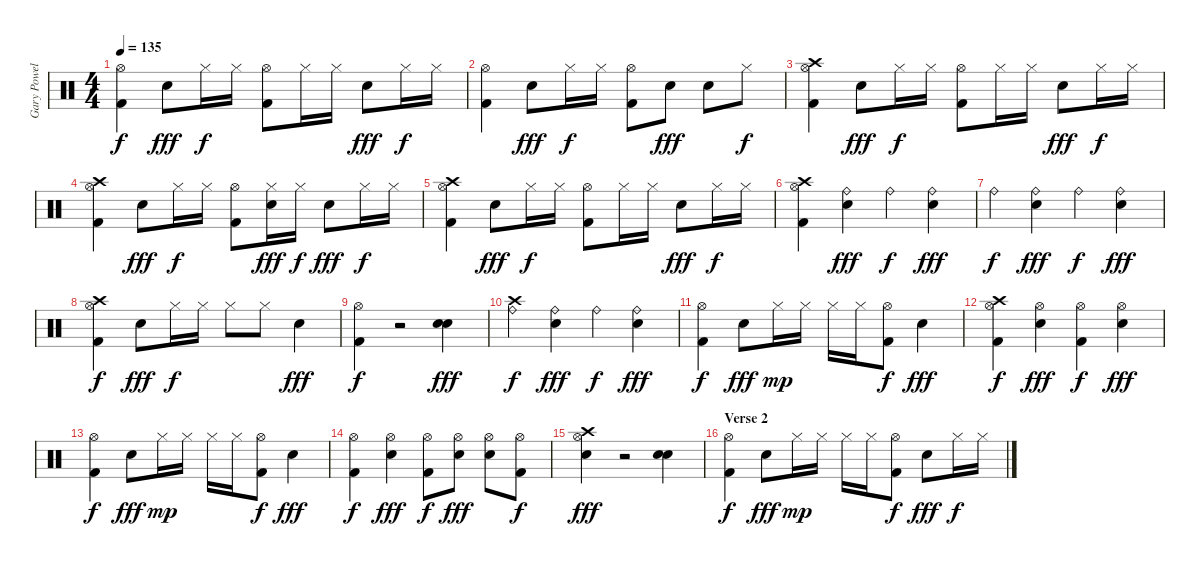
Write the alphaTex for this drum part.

\track ("Gary Powell" "Gary Powel") {instrument percussion}
\staff {score}
\articulation defaults
\ts (4 4)
\tempo 135
\clef neutral
\ks c
("Hi-Hat (open)" "Kick (hit) 2").4{dy f} "Electric Snare (hit)".8{dy fff} "Hi-Hat (closed)".16{dy f} "Hi-Hat (closed)".16 ("Hi-Hat (open)" "Kick (hit) 2").8 "Hi-Hat (closed)".16 "Hi-Hat (closed)".16 "Electric Snare (hit)".8{dy fff} "Hi-Hat (closed)".16{dy f} "Hi-Hat (closed)".16 |
("Hi-Hat (open)" "Kick (hit) 2").4 "Electric Snare (hit)".8{dy fff} "Hi-Hat (closed)".16{dy f} "Hi-Hat (closed)".16 ("Hi-Hat (open)" "Kick (hit) 2").8 "Electric Snare (hit)".8{dy fff} "Electric Snare (hit)".8 "Hi-Hat (closed)".8{dy f} |
("Hi-Hat (open)" "Kick (hit) 2" "Crash high (hit)").4 "Electric Snare (hit)".8{dy fff} "Hi-Hat (closed)".16{dy f} "Hi-Hat (closed)".16 ("Hi-Hat (open)" "Kick (hit) 2").8 "Hi-Hat (closed)".16 "Hi-Hat (closed)".16 "Electric Snare (hit)".8{dy fff} "Hi-Hat (closed)".16{dy f} "Hi-Hat (closed)".16 |
("Hi-Hat (open)" "Kick (hit) 2" "Crash high (hit)").4 "Electric Snare (hit)".8{dy fff} "Hi-Hat (closed)".16{dy f} "Hi-Hat (closed)".16 ("Hi-Hat (open)" "Kick (hit) 2").8 ("Hi-Hat (closed)" "Electric Snare (hit)").16{dy fff} "Hi-Hat (closed)".16{dy f} "Electric Snare (hit)".8{dy fff} "Hi-Hat (closed)".16{dy f} "Hi-Hat (closed)".16 |
("Hi-Hat (open)" "Kick (hit) 2" "Crash high (hit)").4 "Electric Snare (hit)".8{dy fff} "Hi-Hat (closed)".16{dy f} "Hi-Hat (closed)".16 ("Hi-Hat (open)" "Kick (hit) 2").8 "Hi-Hat (closed)".16 "Hi-Hat (closed)".16 "Electric Snare (hit)".8{dy fff} "Hi-Hat (closed)".16{dy f} "Hi-Hat (closed)".16 |
("Hi-Hat (open)" "Kick (hit) 2" "Crash high (hit)").4 ("Ride (bell)" "Electric Snare (hit)").4{dy fff} "Ride (bell)".4{dy f} ("Ride (bell)" "Electric Snare (hit)").4{dy fff} |
"Ride (bell)".4{dy f} ("Ride (bell)" "Electric Snare (hit)").4{dy fff} "Ride (bell)".4{dy f} ("Ride (bell)" "Electric Snare (hit)").4{dy fff} |
("Hi-Hat (open)" "Kick (hit) 2" "Crash high (hit)").4{dy f} "Electric Snare (hit)".8{dy fff} "Hi-Hat (closed)".16{dy f} "Hi-Hat (closed)".16 "Hi-Hat (closed)".8 "Hi-Hat (closed)".8 "Electric Snare (hit)".4{dy fff} |
("Hi-Hat (open)" "Kick (hit) 2").4{dy f} r.2 ("Electric Snare (hit)" "Electric Snare (hit)").4{dy fff} |
("Ride (bell)" "Crash high (hit)").4{dy f} ("Ride (bell)" "Electric Snare (hit)").4{dy fff} "Ride (bell)".4{dy f} ("Ride (bell)" "Electric Snare (hit)").4{dy fff} |
("Hi-Hat (open)" "Kick (hit) 2").4{dy f} "Electric Snare (hit)".8{dy fff} "Hi-Hat (closed)".16{dy mp} "Hi-Hat (closed)".16 "Hi-Hat (closed)".16 "Hi-Hat (closed)".16 ("Hi-Hat (open)" "Kick (hit) 2").8{dy f} "Electric Snare (hit)".4{dy fff} |
("Hi-Hat (open)" "Kick (hit) 2" "Crash high (hit)").4{dy f} ("Hi-Hat (open)" "Electric Snare (hit)").4{dy fff} ("Hi-Hat (open)" "Kick (hit) 2").4{dy f} ("Hi-Hat (open)" "Electric Snare (hit)").4{dy fff} |
("Hi-Hat (open)" "Kick (hit) 2").4{dy f} "Electric Snare (hit)".8{dy fff} "Hi-Hat (closed)".16{dy mp} "Hi-Hat (closed)".16 "Hi-Hat (closed)".16 "Hi-Hat (closed)".16 ("Hi-Hat (open)" "Kick (hit) 2").8{dy f} "Electric Snare (hit)".4{dy fff} |
("Hi-Hat (open)" "Kick (hit) 2").4{dy f} ("Hi-Hat (open)" "Electric Snare (hit)").4{dy fff} ("Hi-Hat (open)" "Kick (hit) 2").8{dy f} ("Hi-Hat (open)" "Electric Snare (hit)").8{dy fff} ("Hi-Hat (open)" "Electric Snare (hit)").8 ("Hi-Hat (open)" "Kick (hit) 2").8{dy f} |
("Hi-Hat (open)" "Electric Snare (hit)" "Crash high (hit)").4{dy fff} r.2 ("Electric Snare (hit)" "Electric Snare (hit)").4 |
\section ("" "Verse 2")
("Hi-Hat (open)" "Kick (hit) 2").4{dy f} "Electric Snare (hit)".8{dy fff} "Hi-Hat (closed)".16{dy mp} "Hi-Hat (closed)".16 "Hi-Hat (closed)".16 "Hi-Hat (closed)".16 ("Hi-Hat (open)" "Kick (hit) 2").8{dy f} "Electric Snare (hit)".8{dy fff} "Hi-Hat (closed)".16{dy f} "Hi-Hat (closed)".16
